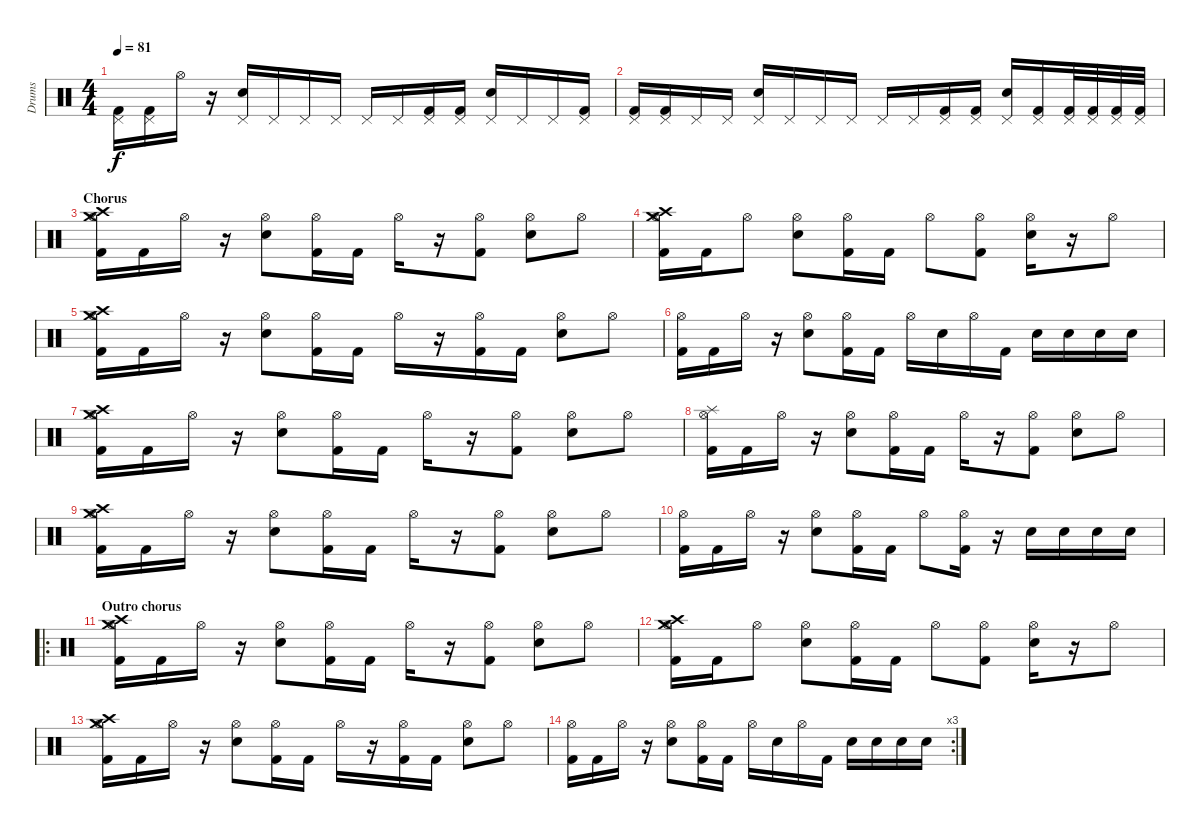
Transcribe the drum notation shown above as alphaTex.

\track ("Drums" "Drums") {instrument percussion}
\staff {score}
\articulation defaults
\ts (4 4)
\tempo 81
\clef neutral
\ks c
("Kick (hit) 2" "Pedal Hi-Hat (hit)").16{dy f} ("Kick (hit) 2" "Pedal Hi-Hat (hit)").16 "Hi-Hat (open)".16 r.16 ("Snare (hit) 2" "Pedal Hi-Hat (hit)").16 "Pedal Hi-Hat (hit)".16 "Pedal Hi-Hat (hit)".16 "Pedal Hi-Hat (hit)".16 "Pedal Hi-Hat (hit)".16 "Pedal Hi-Hat (hit)".16 ("Kick (hit) 2" "Pedal Hi-Hat (hit)").16 ("Kick (hit) 2" "Pedal Hi-Hat (hit)").16 ("Snare (hit) 2" "Pedal Hi-Hat (hit)").16 "Pedal Hi-Hat (hit)".16 "Pedal Hi-Hat (hit)".16 ("Kick (hit) 2" "Pedal Hi-Hat (hit)").16 |
("Kick (hit) 2" "Pedal Hi-Hat (hit)").16 ("Kick (hit) 2" "Pedal Hi-Hat (hit)").16 "Pedal Hi-Hat (hit)".16 "Pedal Hi-Hat (hit)".16 ("Snare (hit) 2" "Pedal Hi-Hat (hit)").16 "Pedal Hi-Hat (hit)".16 "Pedal Hi-Hat (hit)".16 "Pedal Hi-Hat (hit)".16 "Pedal Hi-Hat (hit)".16 "Pedal Hi-Hat (hit)".16 ("Kick (hit) 2" "Pedal Hi-Hat (hit)").16 ("Kick (hit) 2" "Pedal Hi-Hat (hit)").16 ("Snare (hit) 2" "Pedal Hi-Hat (hit)").16 ("Kick (hit) 2" "Pedal Hi-Hat (hit)").16 ("Kick (hit) 2" "Pedal Hi-Hat (hit)").32 ("Kick (hit) 2" "Pedal Hi-Hat (hit)").32 ("Kick (hit) 2" "Pedal Hi-Hat (hit)").32 ("Kick (hit) 2" "Pedal Hi-Hat (hit)").32 |
\section ("" "Chorus")
("Crash medium (hit)" "Crash high (hit)" "Kick (hit) 2" "Hi-Hat (open)").16 "Kick (hit) 2".16 "Hi-Hat (open)".16 r.16 ("Snare (hit) 2" "Hi-Hat (open)").8 ("Kick (hit) 2" "Hi-Hat (open)").16 "Kick (hit) 2".16 "Hi-Hat (open)".16 r.16 ("Kick (hit) 2" "Hi-Hat (open)").8 ("Snare (hit) 2" "Hi-Hat (open)").8 "Hi-Hat (open)".8 |
("Crash medium (hit)" "Crash high (hit)" "Kick (hit) 2" "Hi-Hat (open)").16 "Kick (hit) 2".16 "Hi-Hat (open)".8 ("Snare (hit) 2" "Hi-Hat (open)").8 ("Kick (hit) 2" "Hi-Hat (open)").16 "Kick (hit) 2".16 "Hi-Hat (open)".8 ("Kick (hit) 2" "Hi-Hat (open)").8 ("Snare (hit) 2" "Hi-Hat (open)").16 r.16 "Hi-Hat (open)".8 |
("Crash medium (hit)" "Crash high (hit)" "Kick (hit) 2" "Hi-Hat (open)").16 "Kick (hit) 2".16 "Hi-Hat (open)".16 r.16 ("Snare (hit) 2" "Hi-Hat (open)").8 ("Kick (hit) 2" "Hi-Hat (open)").16 "Kick (hit) 2".16 "Hi-Hat (open)".16 r.16 ("Kick (hit) 2" "Hi-Hat (open)").16 "Kick (hit) 2".16 ("Snare (hit) 2" "Hi-Hat (open)").8 "Hi-Hat (open)".8 |
("Kick (hit) 2" "Hi-Hat (open)").16 "Kick (hit) 2".16 "Hi-Hat (open)".16 r.16 ("Snare (hit) 2" "Hi-Hat (open)").8 ("Kick (hit) 2" "Hi-Hat (open)").16 "Kick (hit) 2".16 "Hi-Hat (open)".16 "Snare (hit) 2".16 "Hi-Hat (open)".16 "Kick (hit) 2".16 "Snare (hit) 2".16 "Snare (hit) 2".16 "Snare (hit) 2".16 "Snare (hit) 2".16 |
("Crash medium (hit)" "Crash high (hit)" "Kick (hit) 2" "Hi-Hat (open)").16 "Kick (hit) 2".16 "Hi-Hat (open)".16 r.16 ("Snare (hit) 2" "Hi-Hat (open)").8 ("Kick (hit) 2" "Hi-Hat (open)").16 "Kick (hit) 2".16 "Hi-Hat (open)".16 r.16 ("Kick (hit) 2" "Hi-Hat (open)").8 ("Snare (hit) 2" "Hi-Hat (open)").8 "Hi-Hat (open)".8 |
("Splash (hit)" "Kick (hit) 2" "Hi-Hat (open)").16 "Kick (hit) 2".16 "Hi-Hat (open)".16 r.16 ("Snare (hit) 2" "Hi-Hat (open)").8 ("Kick (hit) 2" "Hi-Hat (open)").16 "Kick (hit) 2".16 "Hi-Hat (open)".16 r.16 ("Kick (hit) 2" "Hi-Hat (open)").8 ("Snare (hit) 2" "Hi-Hat (open)").8 "Hi-Hat (open)".8 |
("Crash medium (hit)" "Crash high (hit)" "Kick (hit) 2" "Hi-Hat (open)").16 "Kick (hit) 2".16 "Hi-Hat (open)".16 r.16 ("Snare (hit) 2" "Hi-Hat (open)").8 ("Kick (hit) 2" "Hi-Hat (open)").16 "Kick (hit) 2".16 "Hi-Hat (open)".16 r.16 ("Kick (hit) 2" "Hi-Hat (open)").8 ("Snare (hit) 2" "Hi-Hat (open)").8 "Hi-Hat (open)".8 |
("Kick (hit) 2" "Hi-Hat (open)").16 "Kick (hit) 2".16 "Hi-Hat (open)".16 r.16 ("Snare (hit) 2" "Hi-Hat (open)").8 ("Kick (hit) 2" "Hi-Hat (open)").16 "Kick (hit) 2".16 "Hi-Hat (open)".8 ("Kick (hit) 2" "Hi-Hat (open)").16 r.16 "Snare (hit) 2".16 "Snare (hit) 2".16 "Snare (hit) 2".16 "Snare (hit) 2".16 |
\ro
\section ("" "Outro chorus")
("Crash medium (hit)" "Crash high (hit)" "Kick (hit) 2" "Hi-Hat (open)").16 "Kick (hit) 2".16 "Hi-Hat (open)".16 r.16 ("Snare (hit) 2" "Hi-Hat (open)").8 ("Kick (hit) 2" "Hi-Hat (open)").16 "Kick (hit) 2".16 "Hi-Hat (open)".16 r.16 ("Kick (hit) 2" "Hi-Hat (open)").8 ("Snare (hit) 2" "Hi-Hat (open)").8 "Hi-Hat (open)".8 |
("Crash medium (hit)" "Crash high (hit)" "Kick (hit) 2" "Hi-Hat (open)").16 "Kick (hit) 2".16 "Hi-Hat (open)".8 ("Snare (hit) 2" "Hi-Hat (open)").8 ("Kick (hit) 2" "Hi-Hat (open)").16 "Kick (hit) 2".16 "Hi-Hat (open)".8 ("Kick (hit) 2" "Hi-Hat (open)").8 ("Snare (hit) 2" "Hi-Hat (open)").16 r.16 "Hi-Hat (open)".8 |
("Crash medium (hit)" "Crash high (hit)" "Kick (hit) 2" "Hi-Hat (open)").16 "Kick (hit) 2".16 "Hi-Hat (open)".16 r.16 ("Snare (hit) 2" "Hi-Hat (open)").8 ("Kick (hit) 2" "Hi-Hat (open)").16 "Kick (hit) 2".16 "Hi-Hat (open)".16 r.16 ("Kick (hit) 2" "Hi-Hat (open)").16 "Kick (hit) 2".16 ("Snare (hit) 2" "Hi-Hat (open)").8 "Hi-Hat (open)".8 |
\rc 3
("Kick (hit) 2" "Hi-Hat (open)").16 "Kick (hit) 2".16 "Hi-Hat (open)".16 r.16 ("Snare (hit) 2" "Hi-Hat (open)").8 ("Kick (hit) 2" "Hi-Hat (open)").16 "Kick (hit) 2".16 "Hi-Hat (open)".16 "Snare (hit) 2".16 "Hi-Hat (open)".16 "Kick (hit) 2".16 "Snare (hit) 2".16 "Snare (hit) 2".16 "Snare (hit) 2".16 "Snare (hit) 2".16
